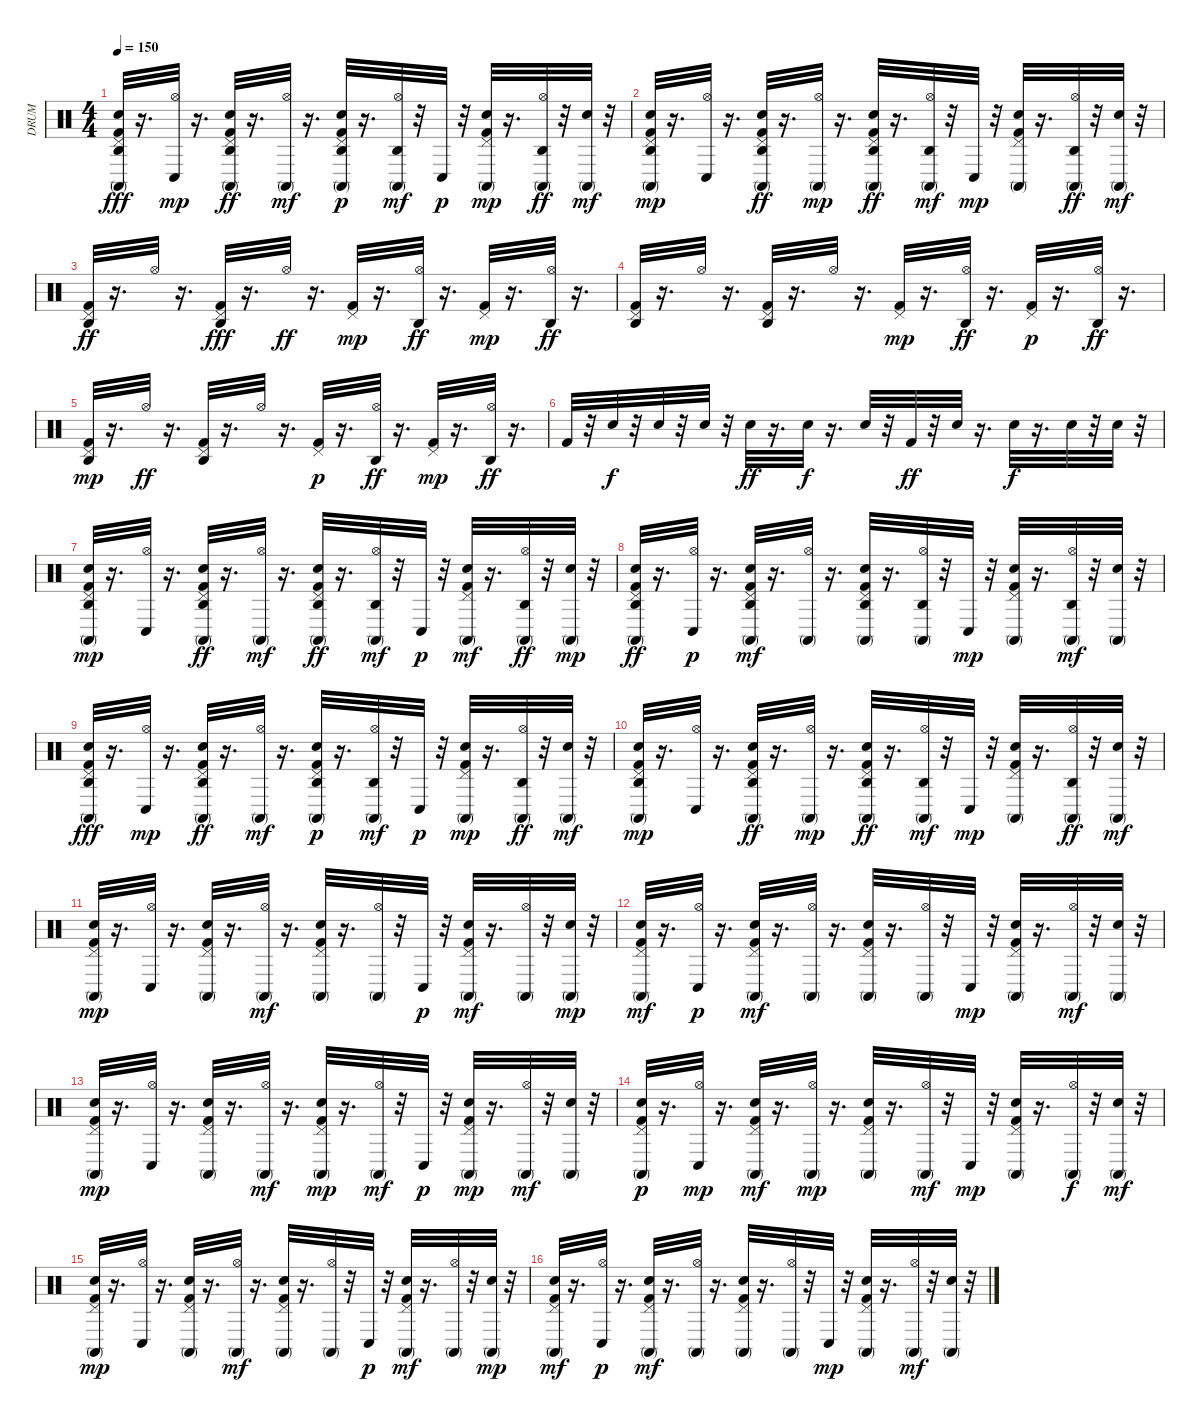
\track ("DRUM" "DRUM") {instrument percussion}
\staff {score}
\articulation defaults
\ts (4 4)
\tempo 150
\clef neutral
\ks c
("Kick (hit) 2" "Hand Clap (hit)" "Pedal Hi-Hat (hit)" "Conga high (mute)" "Agogo high (hit)").32{dy fff} r.16{d} ("Hi-Hat (open)" "Conga low (hit)").32{dy mp} r.16{d} ("Kick (hit) 2" "Hand Clap (hit)" "Pedal Hi-Hat (hit)" "Conga high (mute)" "Agogo high (hit)").32{dy ff} r.16{d} ("Hi-Hat (open)" "Conga high (mute)").32{dy mf} r.16{d} ("Kick (hit) 2" "Hand Clap (hit)" "Pedal Hi-Hat (hit)" "Conga high (mute)" "Agogo high (hit)").32{dy p} r.16{d} ("Hi-Hat (open)" "Conga high (mute)" "Agogo high (hit)").32{dy mf} r.32 "Conga low (hit)".32{dy p} r.32 ("Kick (hit) 2" "Hand Clap (hit)" "Pedal Hi-Hat (hit)" "Conga high (mute)").32{dy mp} r.16{d} ("Hi-Hat (open)" "Conga high (mute)" "Agogo high (hit)").32{dy ff} r.32 ("Hand Clap (hit)" "Conga high (mute)").32{dy mf} r.32 |
("Kick (hit) 2" "Hand Clap (hit)" "Pedal Hi-Hat (hit)" "Conga high (mute)" "Agogo high (hit)").32{dy mp} r.16{d} ("Hi-Hat (open)" "Conga low (hit)").32 r.16{d} ("Kick (hit) 2" "Hand Clap (hit)" "Pedal Hi-Hat (hit)" "Conga high (mute)" "Agogo high (hit)").32{dy ff} r.16{d} ("Hi-Hat (open)" "Conga high (mute)").32{dy mp} r.16{d} ("Kick (hit) 2" "Hand Clap (hit)" "Pedal Hi-Hat (hit)" "Conga high (mute)" "Agogo high (hit)").32{dy ff} r.16{d} ("Hi-Hat (open)" "Conga high (mute)" "Agogo high (hit)").32{dy mf} r.32 "Conga low (hit)".32{dy mp} r.32 ("Kick (hit) 2" "Hand Clap (hit)" "Pedal Hi-Hat (hit)" "Conga high (mute)").32 r.16{d} ("Hi-Hat (open)" "Conga high (mute)" "Agogo high (hit)").32{dy ff} r.32 ("Hand Clap (hit)" "Conga high (mute)").32{dy mf} r.32 |
("Kick (hit) 2" "Pedal Hi-Hat (hit)" "Agogo high (hit)").32{dy ff} r.16{d} "Hi-Hat (open)".32 r.16{d} ("Kick (hit) 2" "Pedal Hi-Hat (hit)" "Agogo high (hit)").32{dy fff} r.16{d} "Hi-Hat (open)".32{dy ff} r.16{d} ("Kick (hit) 2" "Pedal Hi-Hat (hit)").32{dy mp} r.16{d} ("Hi-Hat (open)" "Agogo high (hit)").32{dy ff} r.16{d} ("Kick (hit) 2" "Pedal Hi-Hat (hit)").32{dy mp} r.16{d} ("Hi-Hat (open)" "Agogo high (hit)").32{dy ff} r.16{d} |
("Kick (hit) 2" "Pedal Hi-Hat (hit)" "Agogo high (hit)").32 r.16{d} "Hi-Hat (open)".32 r.16{d} ("Kick (hit) 2" "Pedal Hi-Hat (hit)" "Agogo high (hit)").32 r.16{d} "Hi-Hat (open)".32 r.16{d} ("Kick (hit) 2" "Pedal Hi-Hat (hit)").32{dy mp} r.16{d} ("Hi-Hat (open)" "Agogo high (hit)").32{dy ff} r.16{d} ("Kick (hit) 2" "Pedal Hi-Hat (hit)").32{dy p} r.16{d} ("Hi-Hat (open)" "Agogo high (hit)").32{dy ff} r.16{d} |
("Kick (hit) 2" "Pedal Hi-Hat (hit)" "Agogo high (hit)").32{dy mp} r.16{d} "Hi-Hat (open)".32{dy ff} r.16{d} ("Kick (hit) 2" "Pedal Hi-Hat (hit)" "Agogo high (hit)").32 r.16{d} "Hi-Hat (open)".32 r.16{d} ("Kick (hit) 2" "Pedal Hi-Hat (hit)").32{dy p} r.16{d} ("Hi-Hat (open)" "Agogo high (hit)").32{dy ff} r.16{d} ("Kick (hit) 2" "Pedal Hi-Hat (hit)").32{dy mp} r.16{d} ("Hi-Hat (open)" "Agogo high (hit)").32{dy ff} r.16{d} |
"Kick (hit) 2".32 r.32 "Electric Snare (hit)".32{dy f} r.32 "Electric Snare (hit)".32 r.32 "Electric Snare (hit)".32 r.32 "Electric Snare (hit)".32{dy ff} r.16{d} "Electric Snare (hit)".32{dy f} r.16{d} "Electric Snare (hit)".32 r.32 "Kick (hit) 2".32{dy ff} r.32 "Electric Snare (hit)".32 r.16{d} "Electric Snare (hit)".32{dy f} r.16{d} "Hand Clap (hit)".32 r.32 "Hand Clap (hit)".32 r.32 |
("Kick (hit) 2" "Hand Clap (hit)" "Pedal Hi-Hat (hit)" "Conga high (mute)" "Agogo high (hit)").32{dy mp} r.16{d} ("Hi-Hat (open)" "Conga low (hit)").32 r.16{d} ("Kick (hit) 2" "Hand Clap (hit)" "Pedal Hi-Hat (hit)" "Conga high (mute)" "Agogo high (hit)").32{dy ff} r.16{d} ("Hi-Hat (open)" "Conga high (mute)").32{dy mf} r.16{d} ("Kick (hit) 2" "Hand Clap (hit)" "Pedal Hi-Hat (hit)" "Conga high (mute)" "Agogo high (hit)").32{dy ff} r.16{d} ("Hi-Hat (open)" "Conga high (mute)" "Agogo high (hit)").32{dy mf} r.32 "Conga low (hit)".32{dy p} r.32 ("Kick (hit) 2" "Hand Clap (hit)" "Pedal Hi-Hat (hit)" "Conga high (mute)").32{dy mf} r.16{d} ("Hi-Hat (open)" "Conga high (mute)" "Agogo high (hit)").32{dy ff} r.32 ("Hand Clap (hit)" "Conga high (mute)").32{dy mp} r.32 |
("Kick (hit) 2" "Hand Clap (hit)" "Pedal Hi-Hat (hit)" "Conga high (mute)" "Agogo high (hit)").32{dy ff} r.16{d} ("Hi-Hat (open)" "Conga low (hit)").32{dy p} r.16{d} ("Kick (hit) 2" "Hand Clap (hit)" "Pedal Hi-Hat (hit)" "Conga high (mute)" "Agogo high (hit)").32{dy mf} r.16{d} ("Hi-Hat (open)" "Conga high (mute)").32 r.16{d} ("Kick (hit) 2" "Hand Clap (hit)" "Pedal Hi-Hat (hit)" "Conga high (mute)" "Agogo high (hit)").32 r.16{d} ("Hi-Hat (open)" "Conga high (mute)" "Agogo high (hit)").32 r.32 "Conga low (hit)".32{dy mp} r.32 ("Kick (hit) 2" "Hand Clap (hit)" "Pedal Hi-Hat (hit)" "Conga high (mute)").32 r.16{d} ("Hi-Hat (open)" "Conga high (mute)" "Agogo high (hit)").32{dy mf} r.32 ("Hand Clap (hit)" "Conga high (mute)").32 r.32 |
("Kick (hit) 2" "Hand Clap (hit)" "Pedal Hi-Hat (hit)" "Conga high (mute)" "Agogo high (hit)").32{dy fff} r.16{d} ("Hi-Hat (open)" "Conga low (hit)").32{dy mp} r.16{d} ("Kick (hit) 2" "Hand Clap (hit)" "Pedal Hi-Hat (hit)" "Conga high (mute)" "Agogo high (hit)").32{dy ff} r.16{d} ("Hi-Hat (open)" "Conga high (mute)").32{dy mf} r.16{d} ("Kick (hit) 2" "Hand Clap (hit)" "Pedal Hi-Hat (hit)" "Conga high (mute)" "Agogo high (hit)").32{dy p} r.16{d} ("Hi-Hat (open)" "Conga high (mute)" "Agogo high (hit)").32{dy mf} r.32 "Conga low (hit)".32{dy p} r.32 ("Kick (hit) 2" "Hand Clap (hit)" "Pedal Hi-Hat (hit)" "Conga high (mute)").32{dy mp} r.16{d} ("Hi-Hat (open)" "Conga high (mute)" "Agogo high (hit)").32{dy ff} r.32 ("Hand Clap (hit)" "Conga high (mute)").32{dy mf} r.32 |
("Kick (hit) 2" "Hand Clap (hit)" "Pedal Hi-Hat (hit)" "Conga high (mute)" "Agogo high (hit)").32{dy mp} r.16{d} ("Hi-Hat (open)" "Conga low (hit)").32 r.16{d} ("Kick (hit) 2" "Hand Clap (hit)" "Pedal Hi-Hat (hit)" "Conga high (mute)" "Agogo high (hit)").32{dy ff} r.16{d} ("Hi-Hat (open)" "Conga high (mute)").32{dy mp} r.16{d} ("Kick (hit) 2" "Hand Clap (hit)" "Pedal Hi-Hat (hit)" "Conga high (mute)" "Agogo high (hit)").32{dy ff} r.16{d} ("Hi-Hat (open)" "Conga high (mute)" "Agogo high (hit)").32{dy mf} r.32 "Conga low (hit)".32{dy mp} r.32 ("Kick (hit) 2" "Hand Clap (hit)" "Pedal Hi-Hat (hit)" "Conga high (mute)").32 r.16{d} ("Hi-Hat (open)" "Conga high (mute)" "Agogo high (hit)").32{dy ff} r.32 ("Hand Clap (hit)" "Conga high (mute)").32{dy mf} r.32 |
("Kick (hit) 2" "Hand Clap (hit)" "Pedal Hi-Hat (hit)" "Conga high (mute)").32{dy mp} r.16{d} ("Hi-Hat (open)" "Conga low (hit)").32 r.16{d} ("Kick (hit) 2" "Hand Clap (hit)" "Pedal Hi-Hat (hit)" "Conga high (mute)").32 r.16{d} ("Hi-Hat (open)" "Conga high (mute)").32{dy mf} r.16{d} ("Kick (hit) 2" "Hand Clap (hit)" "Pedal Hi-Hat (hit)" "Conga high (mute)").32 r.16{d} ("Hi-Hat (open)" "Conga high (mute)").32 r.32 "Conga low (hit)".32{dy p} r.32 ("Kick (hit) 2" "Hand Clap (hit)" "Pedal Hi-Hat (hit)" "Conga high (mute)").32{dy mf} r.16{d} ("Hi-Hat (open)" "Conga high (mute)").32 r.32 ("Hand Clap (hit)" "Conga high (mute)").32{dy mp} r.32 |
("Kick (hit) 2" "Hand Clap (hit)" "Pedal Hi-Hat (hit)" "Conga high (mute)").32{dy mf} r.16{d} ("Hi-Hat (open)" "Conga low (hit)").32{dy p} r.16{d} ("Kick (hit) 2" "Hand Clap (hit)" "Pedal Hi-Hat (hit)" "Conga high (mute)").32{dy mf} r.16{d} ("Hi-Hat (open)" "Conga high (mute)").32 r.16{d} ("Kick (hit) 2" "Hand Clap (hit)" "Pedal Hi-Hat (hit)" "Conga high (mute)").32 r.16{d} ("Hi-Hat (open)" "Conga high (mute)").32 r.32 "Conga low (hit)".32{dy mp} r.32 ("Kick (hit) 2" "Hand Clap (hit)" "Pedal Hi-Hat (hit)" "Conga high (mute)").32 r.16{d} ("Hi-Hat (open)" "Conga high (mute)").32{dy mf} r.32 ("Hand Clap (hit)" "Conga high (mute)").32 r.32 |
("Kick (hit) 2" "Hand Clap (hit)" "Pedal Hi-Hat (hit)" "Conga high (mute)").32{dy mp} r.16{d} ("Hi-Hat (open)" "Conga low (hit)").32 r.16{d} ("Kick (hit) 2" "Hand Clap (hit)" "Pedal Hi-Hat (hit)" "Conga high (mute)").32 r.16{d} ("Hi-Hat (open)" "Conga high (mute)").32{dy mf} r.16{d} ("Kick (hit) 2" "Hand Clap (hit)" "Pedal Hi-Hat (hit)" "Conga high (mute)").32{dy mp} r.16{d} ("Hi-Hat (open)" "Conga high (mute)").32{dy mf} r.32 "Conga low (hit)".32{dy p} r.32 ("Kick (hit) 2" "Hand Clap (hit)" "Pedal Hi-Hat (hit)" "Conga high (mute)").32{dy mp} r.16{d} ("Hi-Hat (open)" "Conga high (mute)").32{dy mf} r.32 ("Hand Clap (hit)" "Conga high (mute)").32 r.32 |
("Kick (hit) 2" "Hand Clap (hit)" "Pedal Hi-Hat (hit)" "Conga high (mute)").32{dy p} r.16{d} ("Hi-Hat (open)" "Conga low (hit)").32{dy mp} r.16{d} ("Kick (hit) 2" "Hand Clap (hit)" "Pedal Hi-Hat (hit)" "Conga high (mute)").32{dy mf} r.16{d} ("Hi-Hat (open)" "Conga high (mute)").32{dy mp} r.16{d} ("Kick (hit) 2" "Hand Clap (hit)" "Pedal Hi-Hat (hit)" "Conga high (mute)").32 r.16{d} ("Hi-Hat (open)" "Conga high (mute)").32{dy mf} r.32 "Conga low (hit)".32{dy mp} r.32 ("Kick (hit) 2" "Hand Clap (hit)" "Pedal Hi-Hat (hit)" "Conga high (mute)").32 r.16{d} ("Hi-Hat (open)" "Conga high (mute)").32{dy f} r.32 ("Hand Clap (hit)" "Conga high (mute)").32{dy mf} r.32 |
("Kick (hit) 2" "Hand Clap (hit)" "Pedal Hi-Hat (hit)" "Conga high (mute)").32{dy mp} r.16{d} ("Hi-Hat (open)" "Conga low (hit)").32 r.16{d} ("Kick (hit) 2" "Hand Clap (hit)" "Pedal Hi-Hat (hit)" "Conga high (mute)").32 r.16{d} ("Hi-Hat (open)" "Conga high (mute)").32{dy mf} r.16{d} ("Kick (hit) 2" "Hand Clap (hit)" "Pedal Hi-Hat (hit)" "Conga high (mute)").32 r.16{d} ("Hi-Hat (open)" "Conga high (mute)").32 r.32 "Conga low (hit)".32{dy p} r.32 ("Kick (hit) 2" "Hand Clap (hit)" "Pedal Hi-Hat (hit)" "Conga high (mute)").32{dy mf} r.16{d} ("Hi-Hat (open)" "Conga high (mute)").32 r.32 ("Hand Clap (hit)" "Conga high (mute)").32{dy mp} r.32 |
("Kick (hit) 2" "Hand Clap (hit)" "Pedal Hi-Hat (hit)" "Conga high (mute)").32{dy mf} r.16{d} ("Hi-Hat (open)" "Conga low (hit)").32{dy p} r.16{d} ("Kick (hit) 2" "Hand Clap (hit)" "Pedal Hi-Hat (hit)" "Conga high (mute)").32{dy mf} r.16{d} ("Hi-Hat (open)" "Conga high (mute)").32 r.16{d} ("Kick (hit) 2" "Hand Clap (hit)" "Pedal Hi-Hat (hit)" "Conga high (mute)").32 r.16{d} ("Hi-Hat (open)" "Conga high (mute)").32 r.32 "Conga low (hit)".32{dy mp} r.32 ("Kick (hit) 2" "Hand Clap (hit)" "Pedal Hi-Hat (hit)" "Conga high (mute)").32 r.16{d} ("Hi-Hat (open)" "Conga high (mute)").32{dy mf} r.32 ("Hand Clap (hit)" "Conga high (mute)").32 r.32
